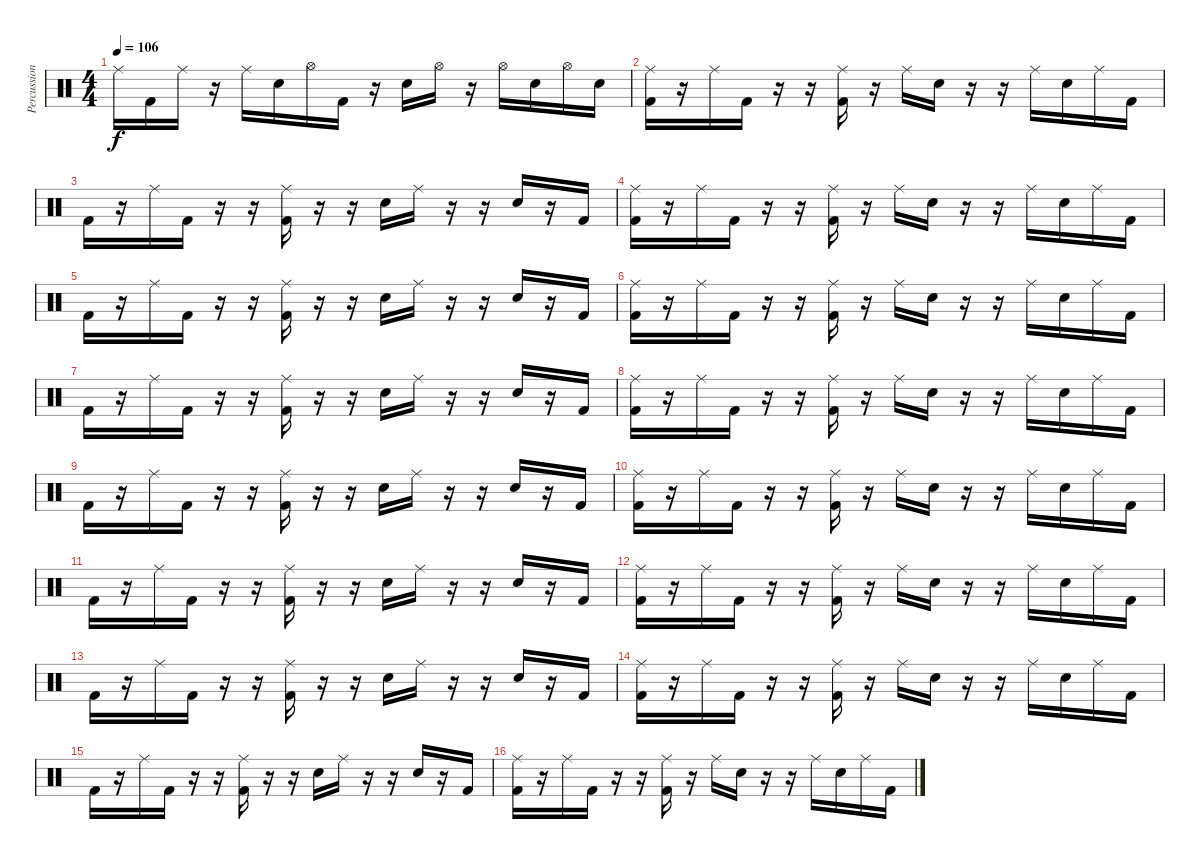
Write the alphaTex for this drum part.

\track ("Percussions" "Percussion") {instrument percussion}
\staff {score}
\articulation defaults
\ts (4 4)
\tempo 106
\clef neutral
\ks c "Ride (middle)".16{dy f} "Kick (hit) 2".16 "Ride (middle)".16
r.16 "Ride (middle)".16 "Electric Snare (hit)".16 "Hi-Hat (open)".16 "Kick (hit) 2".16 r.16 "Electric Snare (hit)".16 "Hi-Hat (open)".16 r.16 "Hi-Hat (open)".16 "Electric Snare (hit)".16 "Hi-Hat (open)".16 "Electric Snare (hit)".16 |
("Ride (middle)" "Kick (hit) 2").16 r.16 "Ride (middle)".16 "Kick (hit) 2".16 r.16 r.16 ("Ride (middle)" "Kick (hit) 2").16 r.16 "Ride (middle)".16 "Electric Snare (hit)".16 r.16 r.16 "Ride (middle)".16 "Electric Snare (hit)".16 "Ride (middle)".16 "Kick (hit) 2".16 |
"Kick (hit) 2".16 r.16 "Ride (middle)".16 "Kick (hit) 2".16 r.16 r.16 ("Ride (middle)" "Kick (hit) 2").16 r.16 r.16 "Electric Snare (hit)".16 "Ride (middle)".16 r.16 r.16 "Electric Snare (hit)".16 r.16 "Kick (hit) 2".16 |
("Ride (middle)" "Kick (hit) 2").16 r.16 "Ride (middle)".16 "Kick (hit) 2".16 r.16 r.16 ("Ride (middle)" "Kick (hit) 2").16 r.16 "Ride (middle)".16 "Electric Snare (hit)".16 r.16 r.16 "Ride (middle)".16 "Electric Snare (hit)".16 "Ride (middle)".16 "Kick (hit) 2".16 |
"Kick (hit) 2".16 r.16 "Ride (middle)".16 "Kick (hit) 2".16 r.16 r.16 ("Ride (middle)" "Kick (hit) 2").16 r.16 r.16 "Electric Snare (hit)".16 "Ride (middle)".16 r.16 r.16 "Electric Snare (hit)".16 r.16 "Kick (hit) 2".16 |
("Ride (middle)" "Kick (hit) 2").16 r.16 "Ride (middle)".16 "Kick (hit) 2".16 r.16 r.16 ("Ride (middle)" "Kick (hit) 2").16 r.16 "Ride (middle)".16 "Electric Snare (hit)".16 r.16 r.16 "Ride (middle)".16 "Electric Snare (hit)".16 "Ride (middle)".16 "Kick (hit) 2".16 |
"Kick (hit) 2".16 r.16 "Ride (middle)".16 "Kick (hit) 2".16 r.16 r.16 ("Ride (middle)" "Kick (hit) 2").16 r.16 r.16 "Electric Snare (hit)".16 "Ride (middle)".16 r.16 r.16 "Electric Snare (hit)".16 r.16 "Kick (hit) 2".16 |
("Ride (middle)" "Kick (hit) 2").16 r.16 "Ride (middle)".16 "Kick (hit) 2".16 r.16 r.16 ("Ride (middle)" "Kick (hit) 2").16 r.16 "Ride (middle)".16 "Electric Snare (hit)".16 r.16 r.16 "Ride (middle)".16 "Electric Snare (hit)".16 "Ride (middle)".16 "Kick (hit) 2".16 |
"Kick (hit) 2".16 r.16 "Ride (middle)".16 "Kick (hit) 2".16 r.16 r.16 ("Ride (middle)" "Kick (hit) 2").16 r.16 r.16 "Electric Snare (hit)".16 "Ride (middle)".16 r.16 r.16 "Electric Snare (hit)".16 r.16 "Kick (hit) 2".16 |
("Ride (middle)" "Kick (hit) 2").16 r.16 "Ride (middle)".16 "Kick (hit) 2".16 r.16 r.16 ("Ride (middle)" "Kick (hit) 2").16 r.16 "Ride (middle)".16 "Electric Snare (hit)".16 r.16 r.16 "Ride (middle)".16 "Electric Snare (hit)".16 "Ride (middle)".16 "Kick (hit) 2".16 |
"Kick (hit) 2".16 r.16 "Ride (middle)".16 "Kick (hit) 2".16 r.16 r.16 ("Ride (middle)" "Kick (hit) 2").16 r.16 r.16 "Electric Snare (hit)".16 "Ride (middle)".16 r.16 r.16 "Electric Snare (hit)".16 r.16 "Kick (hit) 2".16 |
("Ride (middle)" "Kick (hit) 2").16 r.16 "Ride (middle)".16 "Kick (hit) 2".16 r.16 r.16 ("Ride (middle)" "Kick (hit) 2").16 r.16 "Ride (middle)".16 "Electric Snare (hit)".16 r.16 r.16 "Ride (middle)".16 "Electric Snare (hit)".16 "Ride (middle)".16 "Kick (hit) 2".16 |
"Kick (hit) 2".16 r.16 "Ride (middle)".16 "Kick (hit) 2".16 r.16 r.16 ("Ride (middle)" "Kick (hit) 2").16 r.16 r.16 "Electric Snare (hit)".16 "Ride (middle)".16 r.16 r.16 "Electric Snare (hit)".16 r.16 "Kick (hit) 2".16 |
("Ride (middle)" "Kick (hit) 2").16 r.16 "Ride (middle)".16 "Kick (hit) 2".16 r.16 r.16 ("Ride (middle)" "Kick (hit) 2").16 r.16 "Ride (middle)".16 "Electric Snare (hit)".16 r.16 r.16 "Ride (middle)".16 "Electric Snare (hit)".16 "Ride (middle)".16 "Kick (hit) 2".16 |
"Kick (hit) 2".16 r.16 "Ride (middle)".16 "Kick (hit) 2".16 r.16 r.16 ("Ride (middle)" "Kick (hit) 2").16 r.16 r.16 "Electric Snare (hit)".16 "Ride (middle)".16 r.16 r.16 "Electric Snare (hit)".16 r.16 "Kick (hit) 2".16 |
("Ride (middle)" "Kick (hit) 2").16 r.16 "Ride (middle)".16 "Kick (hit) 2".16 r.16 r.16 ("Ride (middle)" "Kick (hit) 2").16 r.16 "Ride (middle)".16 "Electric Snare (hit)".16 r.16 r.16 "Ride (middle)".16 "Electric Snare (hit)".16 "Ride (middle)".16 "Kick (hit) 2".16
